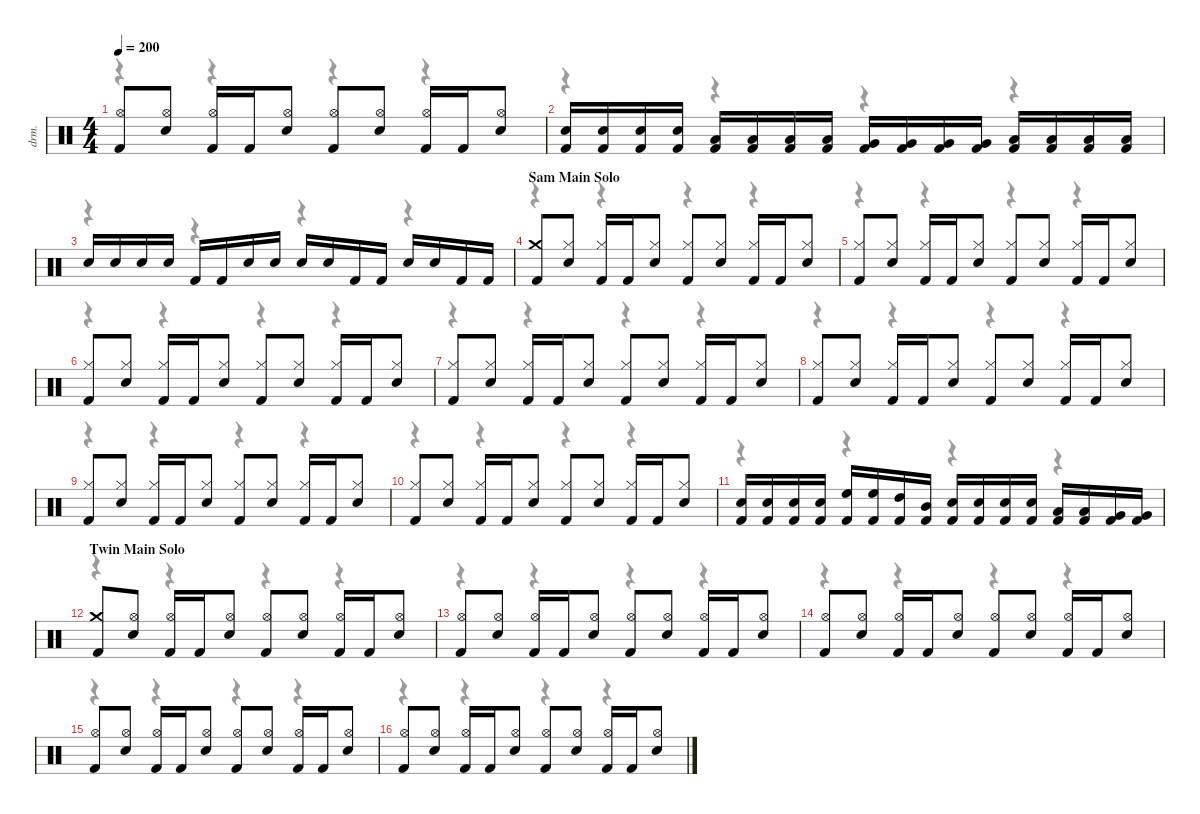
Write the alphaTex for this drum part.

\defaultSystemsLayout 4
\hideDynamics
\bracketExtendMode nobrackets
\otherSystemsTrackNameOrientation horizontal
\track ("David Mackintosh (Drums)" "drm.") {instrument percussion}
\staff {score}
\articulation defaults
\voice
\ts (4 4)
\tempo 200
\clef neutral
\ks c
("Kick (hit) 2" "Hi-Hat (open)").8{dy f} ("Snare (hit) 2" "Hi-Hat (open)").8 ("Kick (hit) 2" "Hi-Hat (open)").16 "Kick (hit) 2".16 ("Snare (hit) 2" "Hi-Hat (open)").8 ("Kick (hit) 2" "Hi-Hat (open)").8 ("Snare (hit) 2" "Hi-Hat (open)").8 ("Kick (hit) 2" "Hi-Hat (open)").16 "Kick (hit) 2".16 ("Snare (hit) 2" "Hi-Hat (open)").8 |
("Kick (hit) 2" "Snare (hit) 2").16 ("Kick (hit) 2" "Snare (hit) 2").16 ("Kick (hit) 2" "Snare (hit) 2").16 ("Kick (hit) 2" "Snare (hit) 2").16 ("Kick (hit) 2" "Low Tom (hit)").16 ("Kick (hit) 2" "Low Tom (hit)").16 ("Kick (hit) 2" "Low Tom (hit)").16 ("Kick (hit) 2" "Low Tom (hit)").16 ("Kick (hit) 2" "Very Low Tom (hit)").16 ("Kick (hit) 2" "Very Low Tom (hit)").16 ("Kick (hit) 2" "Very Low Tom (hit)").16 ("Kick (hit) 2" "Very Low Tom (hit)").16 ("Kick (hit) 2" "Low Floor Tom (hit)").16 ("Kick (hit) 2" "Low Floor Tom (hit)").16 ("Kick (hit) 2" "Low Floor Tom (hit)").16 ("Kick (hit) 2" "Low Floor Tom (hit)").16 |
"Snare (hit) 2".16 "Snare (hit) 2".16 "Snare (hit) 2".16 "Snare (hit) 2".16 "Kick (hit) 2".16 "Kick (hit) 2".16 "Snare (hit) 2".16 "Snare (hit) 2".16 "Snare (hit) 2".16 "Snare (hit) 2".16 "Kick (hit) 2".16 "Kick (hit) 2".16 "Snare (hit) 2".16 "Snare (hit) 2".16 "Kick (hit) 2".16 "Kick (hit) 2".16 |
\section ("" "Sam Main Solo")
("Kick (hit) 2" "Crash medium (hit)").8 ("Snare (hit) 2" "Hi-Hat (closed)").8 ("Kick (hit) 2" "Hi-Hat (closed)").16 "Kick (hit) 2".16 ("Snare (hit) 2" "Hi-Hat (closed)").8 ("Kick (hit) 2" "Hi-Hat (closed)").8 ("Snare (hit) 2" "Hi-Hat (closed)").8 ("Kick (hit) 2" "Hi-Hat (closed)").16 "Kick (hit) 2".16 ("Snare (hit) 2" "Hi-Hat (closed)").8 |
("Kick (hit) 2" "Hi-Hat (closed)").8 ("Snare (hit) 2" "Hi-Hat (closed)").8 ("Kick (hit) 2" "Hi-Hat (closed)").16 "Kick (hit) 2".16 ("Snare (hit) 2" "Hi-Hat (closed)").8 ("Kick (hit) 2" "Hi-Hat (closed)").8 ("Snare (hit) 2" "Hi-Hat (closed)").8 ("Kick (hit) 2" "Hi-Hat (closed)").16 "Kick (hit) 2".16 ("Snare (hit) 2" "Hi-Hat (closed)").8 |
("Kick (hit) 2" "Hi-Hat (closed)").8 ("Snare (hit) 2" "Hi-Hat (closed)").8 ("Kick (hit) 2" "Hi-Hat (closed)").16 "Kick (hit) 2".16 ("Snare (hit) 2" "Hi-Hat (closed)").8 ("Kick (hit) 2" "Hi-Hat (closed)").8 ("Snare (hit) 2" "Hi-Hat (closed)").8 ("Kick (hit) 2" "Hi-Hat (closed)").16 "Kick (hit) 2".16 ("Snare (hit) 2" "Hi-Hat (closed)").8 |
("Kick (hit) 2" "Hi-Hat (closed)").8 ("Snare (hit) 2" "Hi-Hat (closed)").8 ("Kick (hit) 2" "Hi-Hat (closed)").16 "Kick (hit) 2".16 ("Snare (hit) 2" "Hi-Hat (closed)").8 ("Kick (hit) 2" "Hi-Hat (closed)").8 ("Snare (hit) 2" "Hi-Hat (closed)").8 ("Kick (hit) 2" "Hi-Hat (closed)").16 "Kick (hit) 2".16 ("Snare (hit) 2" "Hi-Hat (closed)").8 |
("Kick (hit) 2" "Hi-Hat (closed)").8 ("Snare (hit) 2" "Hi-Hat (closed)").8 ("Kick (hit) 2" "Hi-Hat (closed)").16 "Kick (hit) 2".16 ("Snare (hit) 2" "Hi-Hat (closed)").8 ("Kick (hit) 2" "Hi-Hat (closed)").8 ("Snare (hit) 2" "Hi-Hat (closed)").8 ("Kick (hit) 2" "Hi-Hat (closed)").16 "Kick (hit) 2".16 ("Snare (hit) 2" "Hi-Hat (closed)").8 |
("Kick (hit) 2" "Hi-Hat (closed)").8 ("Snare (hit) 2" "Hi-Hat (closed)").8 ("Kick (hit) 2" "Hi-Hat (closed)").16 "Kick (hit) 2".16 ("Snare (hit) 2" "Hi-Hat (closed)").8 ("Kick (hit) 2" "Hi-Hat (closed)").8 ("Snare (hit) 2" "Hi-Hat (closed)").8 ("Kick (hit) 2" "Hi-Hat (closed)").16 "Kick (hit) 2".16 ("Snare (hit) 2" "Hi-Hat (closed)").8 |
("Kick (hit) 2" "Hi-Hat (closed)").8 ("Snare (hit) 2" "Hi-Hat (closed)").8 ("Kick (hit) 2" "Hi-Hat (closed)").16 "Kick (hit) 2".16 ("Snare (hit) 2" "Hi-Hat (closed)").8 ("Kick (hit) 2" "Hi-Hat (closed)").8 ("Snare (hit) 2" "Hi-Hat (closed)").8 ("Kick (hit) 2" "Hi-Hat (closed)").16 "Kick (hit) 2".16 ("Snare (hit) 2" "Hi-Hat (closed)").8 |
("Kick (hit) 2" "Snare (hit) 2").16 ("Kick (hit) 2" "Snare (hit) 2").16 ("Kick (hit) 2" "Snare (hit) 2").16 ("Kick (hit) 2" "Snare (hit) 2").16 ("Kick (hit) 2" "High Floor Tom (hit)").16 ("Kick (hit) 2" "High Floor Tom (hit)").16 ("Kick (hit) 2" "High Tom (hit)").16 ("Kick (hit) 2" "Mid Tom (hit)").16 ("Kick (hit) 2" "Snare (hit) 2").16 ("Kick (hit) 2" "Snare (hit) 2").16 ("Kick (hit) 2" "Snare (hit) 2").16 ("Kick (hit) 2" "Snare (hit) 2").16 ("Kick (hit) 2" "Low Tom (hit)").16 ("Kick (hit) 2" "Low Tom (hit)").16 ("Kick (hit) 2" "Very Low Tom (hit)").16 ("Kick (hit) 2" "Very Low Tom (hit)").16 |
\section ("" "Twin Main Solo")
("Kick (hit) 2" "Crash medium (hit)").8 ("Snare (hit) 2" "Hi-Hat (open)").8 ("Kick (hit) 2" "Hi-Hat (open)").16 "Kick (hit) 2".16 ("Snare (hit) 2" "Hi-Hat (open)").8 ("Kick (hit) 2" "Hi-Hat (open)").8 ("Snare (hit) 2" "Hi-Hat (open)").8 ("Kick (hit) 2" "Hi-Hat (open)").16 "Kick (hit) 2".16 ("Snare (hit) 2" "Hi-Hat (open)").8 |
("Kick (hit) 2" "Hi-Hat (open)").8 ("Snare (hit) 2" "Hi-Hat (open)").8 ("Kick (hit) 2" "Hi-Hat (open)").16 "Kick (hit) 2".16 ("Snare (hit) 2" "Hi-Hat (open)").8 ("Kick (hit) 2" "Hi-Hat (open)").8 ("Snare (hit) 2" "Hi-Hat (open)").8 ("Kick (hit) 2" "Hi-Hat (open)").16 "Kick (hit) 2".16 ("Snare (hit) 2" "Hi-Hat (open)").8 |
("Kick (hit) 2" "Hi-Hat (open)").8 ("Snare (hit) 2" "Hi-Hat (open)").8 ("Kick (hit) 2" "Hi-Hat (open)").16 "Kick (hit) 2".16 ("Snare (hit) 2" "Hi-Hat (open)").8 ("Kick (hit) 2" "Hi-Hat (open)").8 ("Snare (hit) 2" "Hi-Hat (open)").8 ("Kick (hit) 2" "Hi-Hat (open)").16 "Kick (hit) 2".16 ("Snare (hit) 2" "Hi-Hat (open)").8 |
("Kick (hit) 2" "Hi-Hat (open)").8 ("Snare (hit) 2" "Hi-Hat (open)").8 ("Kick (hit) 2" "Hi-Hat (open)").16 "Kick (hit) 2".16 ("Snare (hit) 2" "Hi-Hat (open)").8 ("Kick (hit) 2" "Hi-Hat (open)").8 ("Snare (hit) 2" "Hi-Hat (open)").8 ("Kick (hit) 2" "Hi-Hat (open)").16 "Kick (hit) 2".16 ("Snare (hit) 2" "Hi-Hat (open)").8 |
("Kick (hit) 2" "Hi-Hat (open)").8 ("Snare (hit) 2" "Hi-Hat (open)").8 ("Kick (hit) 2" "Hi-Hat (open)").16 "Kick (hit) 2".16 ("Snare (hit) 2" "Hi-Hat (open)").8 ("Kick (hit) 2" "Hi-Hat (open)").8 ("Snare (hit) 2" "Hi-Hat (open)").8 ("Kick (hit) 2" "Hi-Hat (open)").16 "Kick (hit) 2".16 ("Snare (hit) 2" "Hi-Hat (open)").8
\voice
\clef neutral
\ottava regular
\simile none
\ks c
r.4{dy mf} r.4 r.4 r.4 |
r.4 r.4 r.4 r.4 |
r.4 r.4 r.4 r.4 |
r.4 r.4 r.4 r.4 |
r.4 r.4 r.4 r.4 |
r.4 r.4 r.4 r.4 |
r.4 r.4 r.4 r.4 |
r.4 r.4 r.4 r.4 |
r.4 r.4 r.4 r.4 |
r.4 r.4 r.4 r.4 |
r.4 r.4 r.4 r.4 |
r.4 r.4 r.4 r.4 |
r.4 r.4 r.4 r.4 |
r.4 r.4 r.4 r.4 |
r.4 r.4 r.4 r.4 |
r.4 r.4 r.4 r.4
